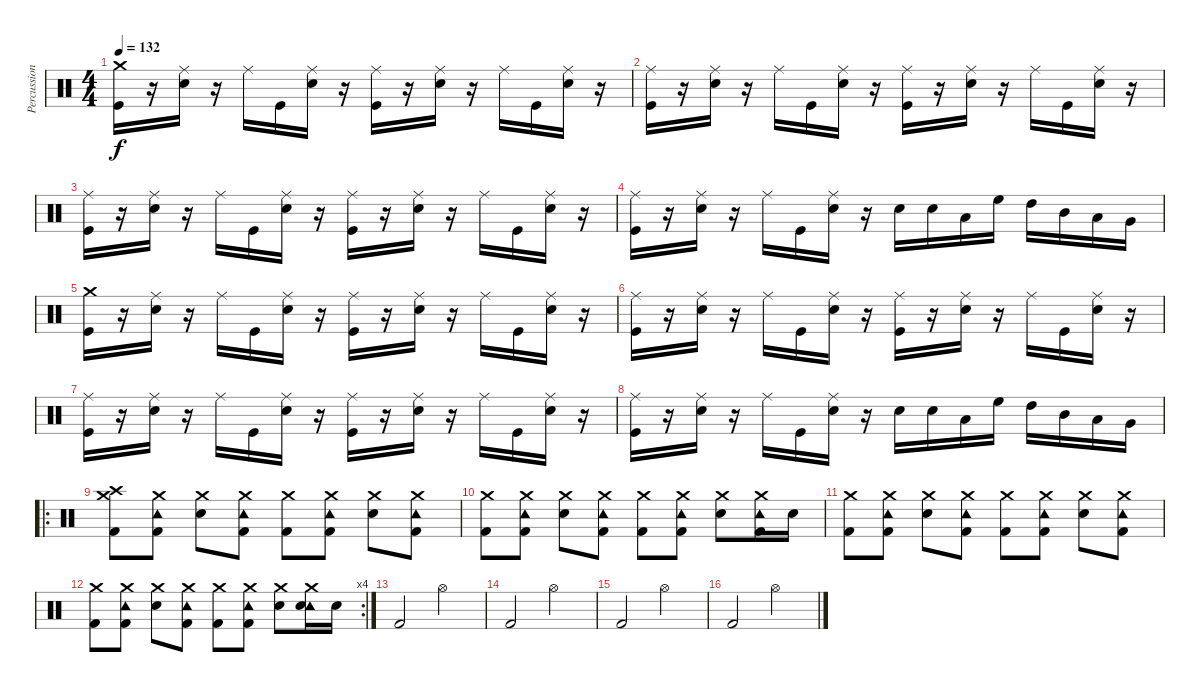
\track ("Percussion" "Percussion") {instrument percussion}
\staff {score}
\articulation defaults
\ts (4 4)
\tempo 132
\clef neutral
\ks c
("Crash medium (hit)" "Kick (hit)").16{dy f} r.16 ("Ride (middle)" "Electric Snare (hit)").16 r.16 "Ride (middle)".16 "Kick (hit)".16 ("Ride (middle)" "Electric Snare (hit)").16 r.16 ("Ride (middle)" "Kick (hit)").16 r.16 ("Ride (middle)" "Electric Snare (hit)").16 r.16 "Ride (middle)".16 "Kick (hit)".16 ("Ride (middle)" "Electric Snare (hit)").16 r.16 |
("Ride (middle)" "Kick (hit)").16 r.16 ("Ride (middle)" "Electric Snare (hit)").16 r.16 "Ride (middle)".16 "Kick (hit)".16 ("Ride (middle)" "Electric Snare (hit)").16 r.16 ("Ride (middle)" "Kick (hit)").16 r.16 ("Ride (middle)" "Electric Snare (hit)").16 r.16 "Ride (middle)".16 "Kick (hit)".16 ("Ride (middle)" "Electric Snare (hit)").16 r.16 |
("Ride (middle)" "Kick (hit)").16 r.16 ("Ride (middle)" "Electric Snare (hit)").16 r.16 "Ride (middle)".16 "Kick (hit)".16 ("Ride (middle)" "Electric Snare (hit)").16 r.16 ("Ride (middle)" "Kick (hit)").16 r.16 ("Ride (middle)" "Electric Snare (hit)").16 r.16 "Ride (middle)".16 "Kick (hit)".16 ("Ride (middle)" "Electric Snare (hit)").16 r.16 |
("Ride (middle)" "Kick (hit)").16 r.16 ("Ride (middle)" "Electric Snare (hit)").16 r.16 "Ride (middle)".16 "Kick (hit)".16 ("Ride (middle)" "Electric Snare (hit)").16 r.16 "Electric Snare (hit)".16 "Electric Snare (hit)".16 "Low Floor Tom (hit)".16 "High Floor Tom (hit)".16 "High Tom (hit)".16 "Mid Tom (hit)".16 "Low Tom (hit)".16 "Very Low Tom (hit)".16 |
("Crash medium (hit)" "Kick (hit)").16 r.16 ("Ride (middle)" "Electric Snare (hit)").16 r.16 "Ride (middle)".16 "Kick (hit)".16 ("Ride (middle)" "Electric Snare (hit)").16 r.16 ("Ride (middle)" "Kick (hit)").16 r.16 ("Ride (middle)" "Electric Snare (hit)").16 r.16 "Ride (middle)".16 "Kick (hit)".16 ("Ride (middle)" "Electric Snare (hit)").16 r.16 |
("Ride (middle)" "Kick (hit)").16 r.16 ("Ride (middle)" "Electric Snare (hit)").16 r.16 "Ride (middle)".16 "Kick (hit)".16 ("Ride (middle)" "Electric Snare (hit)").16 r.16 ("Ride (middle)" "Kick (hit)").16 r.16 ("Ride (middle)" "Electric Snare (hit)").16 r.16 "Ride (middle)".16 "Kick (hit)".16 ("Ride (middle)" "Electric Snare (hit)").16 r.16 |
("Ride (middle)" "Kick (hit)").16 r.16 ("Ride (middle)" "Electric Snare (hit)").16 r.16 "Ride (middle)".16 "Kick (hit)".16 ("Ride (middle)" "Electric Snare (hit)").16 r.16 ("Ride (middle)" "Kick (hit)").16 r.16 ("Ride (middle)" "Electric Snare (hit)").16 r.16 "Ride (middle)".16 "Kick (hit)".16 ("Ride (middle)" "Electric Snare (hit)").16 r.16 |
("Ride (middle)" "Kick (hit)").16 r.16 ("Ride (middle)" "Electric Snare (hit)").16 r.16 "Ride (middle)".16 "Kick (hit)".16 ("Ride (middle)" "Electric Snare (hit)").16 r.16 "Electric Snare (hit)".16 "Electric Snare (hit)".16 "Low Floor Tom (hit)".16 "High Floor Tom (hit)".16 "High Tom (hit)".16 "Mid Tom (hit)".16 "Low Tom (hit)".16 "Very Low Tom (hit)".16 |
\ro
("Crash medium (hit)" "Crash high (hit)" "Kick (hit) 2").8 ("Crash medium (hit)" "Tambourine (hit)" "Kick (hit) 2").8 ("Crash medium (hit)" "Electric Snare (hit)").8 ("Crash medium (hit)" "Tambourine (hit)" "Kick (hit) 2").8 ("Crash medium (hit)" "Kick (hit) 2").8 ("Crash medium (hit)" "Tambourine (hit)" "Kick (hit) 2").8 ("Crash medium (hit)" "Electric Snare (hit)").8 ("Crash medium (hit)" "Tambourine (hit)" "Kick (hit) 2").8 |
("Crash medium (hit)" "Kick (hit) 2").8 ("Crash medium (hit)" "Tambourine (hit)" "Kick (hit) 2").8 ("Crash medium (hit)" "Electric Snare (hit)").8 ("Crash medium (hit)" "Tambourine (hit)" "Kick (hit) 2").8 ("Crash medium (hit)" "Kick (hit) 2").8 ("Crash medium (hit)" "Tambourine (hit)" "Kick (hit) 2").8 ("Crash medium (hit)" "Electric Snare (hit)").8 ("Crash medium (hit)" "Tambourine (hit)" "Kick (hit) 2").16 "Electric Snare (hit)".16 |
("Crash medium (hit)" "Kick (hit) 2").8 ("Crash medium (hit)" "Tambourine (hit)" "Kick (hit) 2").8 ("Crash medium (hit)" "Electric Snare (hit)").8 ("Crash medium (hit)" "Tambourine (hit)" "Kick (hit) 2").8 ("Crash medium (hit)" "Kick (hit) 2").8 ("Crash medium (hit)" "Tambourine (hit)" "Kick (hit) 2").8 ("Crash medium (hit)" "Electric Snare (hit)").8 ("Crash medium (hit)" "Tambourine (hit)" "Kick (hit) 2").8 |
\rc 4
("Crash medium (hit)" "Kick (hit) 2").8 ("Crash medium (hit)" "Tambourine (hit)" "Kick (hit) 2").8 ("Crash medium (hit)" "Electric Snare (hit)").8 ("Crash medium (hit)" "Tambourine (hit)" "Kick (hit) 2").8 ("Crash medium (hit)" "Kick (hit) 2").8 ("Crash medium (hit)" "Tambourine (hit)" "Kick (hit) 2").8 ("Crash medium (hit)" "Electric Snare (hit)").8 ("Crash medium (hit)" "Tambourine (hit)" "Electric Snare (hit)").16 "Electric Snare (hit)".16 |
"Kick (hit) 2".2 "Hi-Hat (open)".2 |
"Kick (hit) 2".2 "Hi-Hat (open)".2 |
"Kick (hit) 2".2 "Hi-Hat (open)".2 |
"Kick (hit) 2".2 "Hi-Hat (open)".2
